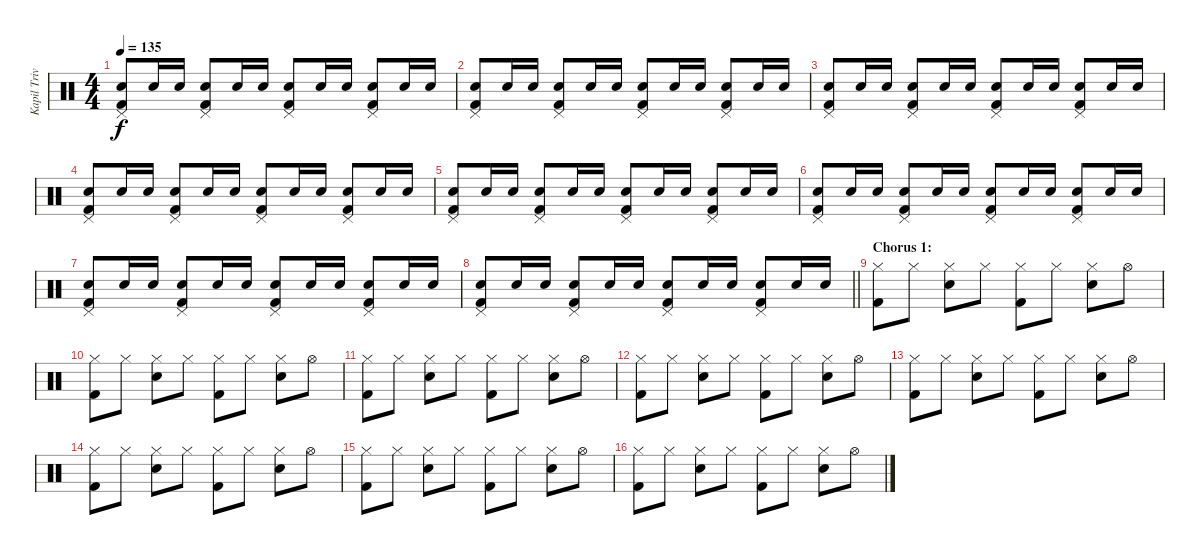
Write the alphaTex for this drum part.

\track ("Kapil Trivedi (Percussion)" "Kapil Triv") {instrument percussion}
\staff {score}
\articulation defaults
\ts (4 4)
\tempo 135
\clef neutral
\ks c
("Pedal Hi-Hat (hit)" "Snare (hit) 2" "Kick (hit) 2").8{dy f} "Snare (hit) 2".16 "Snare (hit) 2".16 ("Pedal Hi-Hat (hit)" "Snare (hit) 2" "Kick (hit) 2").8 "Snare (hit) 2".16 "Snare (hit) 2".16 ("Pedal Hi-Hat (hit)" "Snare (hit) 2" "Kick (hit) 2").8 "Snare (hit) 2".16 "Snare (hit) 2".16 ("Pedal Hi-Hat (hit)" "Snare (hit) 2" "Kick (hit) 2").8 "Snare (hit) 2".16 "Snare (hit) 2".16 |
("Pedal Hi-Hat (hit)" "Snare (hit) 2" "Kick (hit) 2").8 "Snare (hit) 2".16 "Snare (hit) 2".16 ("Pedal Hi-Hat (hit)" "Snare (hit) 2" "Kick (hit) 2").8 "Snare (hit) 2".16 "Snare (hit) 2".16 ("Pedal Hi-Hat (hit)" "Snare (hit) 2" "Kick (hit) 2").8 "Snare (hit) 2".16 "Snare (hit) 2".16 ("Pedal Hi-Hat (hit)" "Snare (hit) 2" "Kick (hit) 2").8 "Snare (hit) 2".16 "Snare (hit) 2".16 |
("Pedal Hi-Hat (hit)" "Snare (hit) 2" "Kick (hit) 2").8 "Snare (hit) 2".16 "Snare (hit) 2".16 ("Pedal Hi-Hat (hit)" "Snare (hit) 2" "Kick (hit) 2").8 "Snare (hit) 2".16 "Snare (hit) 2".16 ("Pedal Hi-Hat (hit)" "Snare (hit) 2" "Kick (hit) 2").8 "Snare (hit) 2".16 "Snare (hit) 2".16 ("Pedal Hi-Hat (hit)" "Snare (hit) 2" "Kick (hit) 2").8 "Snare (hit) 2".16 "Snare (hit) 2".16 |
("Pedal Hi-Hat (hit)" "Snare (hit) 2" "Kick (hit) 2").8 "Snare (hit) 2".16 "Snare (hit) 2".16 ("Pedal Hi-Hat (hit)" "Snare (hit) 2" "Kick (hit) 2").8 "Snare (hit) 2".16 "Snare (hit) 2".16 ("Pedal Hi-Hat (hit)" "Snare (hit) 2" "Kick (hit) 2").8 "Snare (hit) 2".16 "Snare (hit) 2".16 ("Pedal Hi-Hat (hit)" "Snare (hit) 2" "Kick (hit) 2").8 "Snare (hit) 2".16 "Snare (hit) 2".16 |
("Pedal Hi-Hat (hit)" "Snare (hit) 2" "Kick (hit) 2").8 "Snare (hit) 2".16 "Snare (hit) 2".16 ("Pedal Hi-Hat (hit)" "Snare (hit) 2" "Kick (hit) 2").8 "Snare (hit) 2".16 "Snare (hit) 2".16 ("Pedal Hi-Hat (hit)" "Snare (hit) 2" "Kick (hit) 2").8 "Snare (hit) 2".16 "Snare (hit) 2".16 ("Pedal Hi-Hat (hit)" "Snare (hit) 2" "Kick (hit) 2").8 "Snare (hit) 2".16 "Snare (hit) 2".16 |
("Pedal Hi-Hat (hit)" "Snare (hit) 2" "Kick (hit) 2").8 "Snare (hit) 2".16 "Snare (hit) 2".16 ("Pedal Hi-Hat (hit)" "Snare (hit) 2" "Kick (hit) 2").8 "Snare (hit) 2".16 "Snare (hit) 2".16 ("Pedal Hi-Hat (hit)" "Snare (hit) 2" "Kick (hit) 2").8 "Snare (hit) 2".16 "Snare (hit) 2".16 ("Pedal Hi-Hat (hit)" "Snare (hit) 2" "Kick (hit) 2").8 "Snare (hit) 2".16 "Snare (hit) 2".16 |
("Pedal Hi-Hat (hit)" "Snare (hit) 2" "Kick (hit) 2").8 "Snare (hit) 2".16 "Snare (hit) 2".16 ("Pedal Hi-Hat (hit)" "Snare (hit) 2" "Kick (hit) 2").8 "Snare (hit) 2".16 "Snare (hit) 2".16 ("Pedal Hi-Hat (hit)" "Snare (hit) 2" "Kick (hit) 2").8 "Snare (hit) 2".16 "Snare (hit) 2".16 ("Pedal Hi-Hat (hit)" "Snare (hit) 2" "Kick (hit) 2").8 "Snare (hit) 2".16 "Snare (hit) 2".16 |
\barLineRight lightlight
("Pedal Hi-Hat (hit)" "Snare (hit) 2" "Kick (hit) 2").8 "Snare (hit) 2".16 "Snare (hit) 2".16 ("Pedal Hi-Hat (hit)" "Snare (hit) 2" "Kick (hit) 2").8 "Snare (hit) 2".16 "Snare (hit) 2".16 ("Pedal Hi-Hat (hit)" "Snare (hit) 2" "Kick (hit) 2").8 "Snare (hit) 2".16 "Snare (hit) 2".16 ("Pedal Hi-Hat (hit)" "Snare (hit) 2" "Kick (hit) 2").8 "Snare (hit) 2".16 "Snare (hit) 2".16 |
\section ("" "Chorus 1:")
("Hi-Hat (closed)" "Kick (hit) 2").8 "Hi-Hat (closed)".8 ("Hi-Hat (closed)" "Snare (hit) 2").8 "Hi-Hat (closed)".8 ("Hi-Hat (closed)" "Kick (hit) 2").8 "Hi-Hat (closed)".8 ("Hi-Hat (closed)" "Snare (hit) 2").8 "Hi-Hat (open)".8 |
("Hi-Hat (closed)" "Kick (hit) 2").8 "Hi-Hat (closed)".8 ("Hi-Hat (closed)" "Snare (hit) 2").8 "Hi-Hat (closed)".8 ("Hi-Hat (closed)" "Kick (hit) 2").8 "Hi-Hat (closed)".8 ("Hi-Hat (closed)" "Snare (hit) 2").8 "Hi-Hat (open)".8 |
("Hi-Hat (closed)" "Kick (hit) 2").8 "Hi-Hat (closed)".8 ("Hi-Hat (closed)" "Snare (hit) 2").8 "Hi-Hat (closed)".8 ("Hi-Hat (closed)" "Kick (hit) 2").8 "Hi-Hat (closed)".8 ("Hi-Hat (closed)" "Snare (hit) 2").8 "Hi-Hat (open)".8 |
("Hi-Hat (closed)" "Kick (hit) 2").8 "Hi-Hat (closed)".8 ("Hi-Hat (closed)" "Snare (hit) 2").8 "Hi-Hat (closed)".8 ("Hi-Hat (closed)" "Kick (hit) 2").8 "Hi-Hat (closed)".8 ("Hi-Hat (closed)" "Snare (hit) 2").8 "Hi-Hat (open)".8 |
("Hi-Hat (closed)" "Kick (hit) 2").8 "Hi-Hat (closed)".8 ("Hi-Hat (closed)" "Snare (hit) 2").8 "Hi-Hat (closed)".8 ("Hi-Hat (closed)" "Kick (hit) 2").8 "Hi-Hat (closed)".8 ("Hi-Hat (closed)" "Snare (hit) 2").8 "Hi-Hat (open)".8 |
("Hi-Hat (closed)" "Kick (hit) 2").8 "Hi-Hat (closed)".8 ("Hi-Hat (closed)" "Snare (hit) 2").8 "Hi-Hat (closed)".8 ("Hi-Hat (closed)" "Kick (hit) 2").8 "Hi-Hat (closed)".8 ("Hi-Hat (closed)" "Snare (hit) 2").8 "Hi-Hat (open)".8 |
("Hi-Hat (closed)" "Kick (hit) 2").8 "Hi-Hat (closed)".8 ("Hi-Hat (closed)" "Snare (hit) 2").8 "Hi-Hat (closed)".8 ("Hi-Hat (closed)" "Kick (hit) 2").8 "Hi-Hat (closed)".8 ("Hi-Hat (closed)" "Snare (hit) 2").8 "Hi-Hat (open)".8 |
("Hi-Hat (closed)" "Kick (hit) 2").8 "Hi-Hat (closed)".8 ("Hi-Hat (closed)" "Snare (hit) 2").8 "Hi-Hat (closed)".8 ("Hi-Hat (closed)" "Kick (hit) 2").8 "Hi-Hat (closed)".8 ("Hi-Hat (closed)" "Snare (hit) 2").8 "Hi-Hat (open)".8
